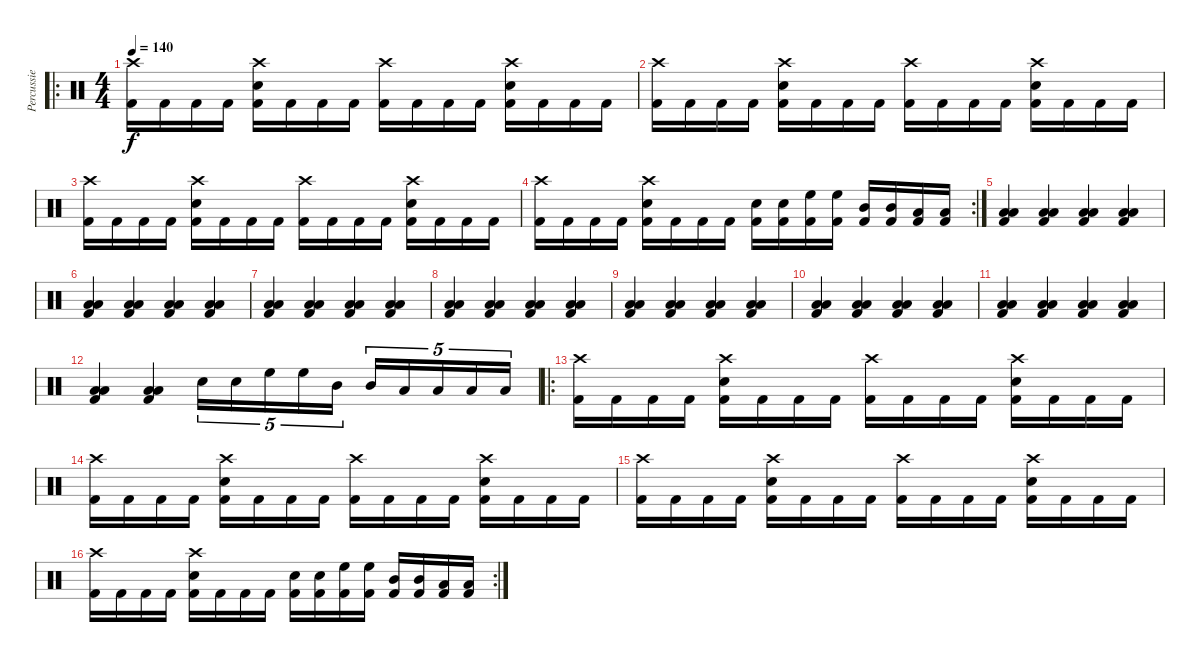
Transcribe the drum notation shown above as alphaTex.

\track ("Percussie" "Percussie") {instrument percussion}
\staff {score}
\articulation defaults
\ro
\ts (4 4)
\tempo 140
\clef neutral
\ks c
("Crash high (hit)" "Kick (hit) 2").16{dy f} "Kick (hit) 2".16 "Kick (hit) 2".16 "Kick (hit) 2".16 ("Crash high (hit)" "Snare (hit) 2" "Kick (hit) 2").16 "Kick (hit) 2".16 "Kick (hit) 2".16 "Kick (hit) 2".16 ("Crash high (hit)" "Kick (hit) 2").16 "Kick (hit) 2".16 "Kick (hit) 2".16 "Kick (hit) 2".16 ("Crash high (hit)" "Snare (hit) 2" "Kick (hit) 2").16 "Kick (hit) 2".16 "Kick (hit) 2".16 "Kick (hit) 2".16 |
("Crash high (hit)" "Kick (hit) 2").16 "Kick (hit) 2".16 "Kick (hit) 2".16 "Kick (hit) 2".16 ("Crash high (hit)" "Snare (hit) 2" "Kick (hit) 2").16 "Kick (hit) 2".16 "Kick (hit) 2".16 "Kick (hit) 2".16 ("Crash high (hit)" "Kick (hit) 2").16 "Kick (hit) 2".16 "Kick (hit) 2".16 "Kick (hit) 2".16 ("Crash high (hit)" "Snare (hit) 2" "Kick (hit) 2").16 "Kick (hit) 2".16 "Kick (hit) 2".16 "Kick (hit) 2".16 |
("Crash high (hit)" "Kick (hit) 2").16 "Kick (hit) 2".16 "Kick (hit) 2".16 "Kick (hit) 2".16 ("Crash high (hit)" "Snare (hit) 2" "Kick (hit) 2").16 "Kick (hit) 2".16 "Kick (hit) 2".16 "Kick (hit) 2".16 ("Crash high (hit)" "Kick (hit) 2").16 "Kick (hit) 2".16 "Kick (hit) 2".16 "Kick (hit) 2".16 ("Crash high (hit)" "Snare (hit) 2" "Kick (hit) 2").16 "Kick (hit) 2".16 "Kick (hit) 2".16 "Kick (hit) 2".16 |
\rc 2
("Crash high (hit)" "Kick (hit) 2").16 "Kick (hit) 2".16 "Kick (hit) 2".16 "Kick (hit) 2".16 ("Crash high (hit)" "Snare (hit) 2" "Kick (hit) 2").16 "Kick (hit) 2".16 "Kick (hit) 2".16 "Kick (hit) 2".16 ("Snare (hit) 2" "Kick (hit) 2").16 ("Snare (hit) 2" "Kick (hit) 2").16 ("High Floor Tom (hit)" "Kick (hit) 2").16 ("High Floor Tom (hit)" "Kick (hit) 2").16 ("Mid Tom (hit)" "Kick (hit) 2").16 ("Mid Tom (hit)" "Kick (hit) 2").16 ("Low Tom (hit)" "Kick (hit) 2").16 ("Low Floor Tom (hit)" "Kick (hit) 2").16 |
("Low Floor Tom (hit)" "Low Tom (hit)" "Kick (hit) 2").4 ("Low Floor Tom (hit)" "Low Tom (hit)" "Kick (hit) 2").4 ("Low Floor Tom (hit)" "Low Tom (hit)" "Kick (hit) 2").4 ("Low Floor Tom (hit)" "Low Tom (hit)" "Kick (hit) 2").4 |
("Low Floor Tom (hit)" "Low Tom (hit)" "Kick (hit) 2").4 ("Low Floor Tom (hit)" "Low Tom (hit)" "Kick (hit) 2").4 ("Low Floor Tom (hit)" "Low Tom (hit)" "Kick (hit) 2").4 ("Low Floor Tom (hit)" "Low Tom (hit)" "Kick (hit) 2").4 |
("Low Floor Tom (hit)" "Low Tom (hit)" "Kick (hit) 2").4 ("Low Floor Tom (hit)" "Low Tom (hit)" "Kick (hit) 2").4 ("Low Floor Tom (hit)" "Low Tom (hit)" "Kick (hit) 2").4 ("Low Floor Tom (hit)" "Low Tom (hit)" "Kick (hit) 2").4 |
("Low Floor Tom (hit)" "Low Tom (hit)" "Kick (hit) 2").4 ("Low Floor Tom (hit)" "Low Tom (hit)" "Kick (hit) 2").4 ("Low Floor Tom (hit)" "Low Tom (hit)" "Kick (hit) 2").4 ("Low Floor Tom (hit)" "Low Tom (hit)" "Kick (hit) 2").4 |
("Low Floor Tom (hit)" "Low Tom (hit)" "Kick (hit) 2").4 ("Low Floor Tom (hit)" "Low Tom (hit)" "Kick (hit) 2").4 ("Low Floor Tom (hit)" "Low Tom (hit)" "Kick (hit) 2").4 ("Low Floor Tom (hit)" "Low Tom (hit)" "Kick (hit) 2").4 |
("Low Floor Tom (hit)" "Low Tom (hit)" "Kick (hit) 2").4 ("Low Floor Tom (hit)" "Low Tom (hit)" "Kick (hit) 2").4 ("Low Floor Tom (hit)" "Low Tom (hit)" "Kick (hit) 2").4 ("Low Floor Tom (hit)" "Low Tom (hit)" "Kick (hit) 2").4 |
("Low Floor Tom (hit)" "Low Tom (hit)" "Kick (hit) 2").4 ("Low Floor Tom (hit)" "Low Tom (hit)" "Kick (hit) 2").4 ("Low Floor Tom (hit)" "Low Tom (hit)" "Kick (hit) 2").4 ("Low Floor Tom (hit)" "Low Tom (hit)" "Kick (hit) 2").4 |
("Low Floor Tom (hit)" "Low Tom (hit)" "Kick (hit) 2").4 ("Low Floor Tom (hit)" "Low Tom (hit)" "Kick (hit) 2").4 "Snare (hit) 2".16{tu (5 4)} "Snare (hit) 2".16{tu (5 4)} "High Floor Tom (hit)".16{tu (5 4)} "High Floor Tom (hit)".16{tu (5 4)} "Mid Tom (hit)".16{tu (5 4)} "Mid Tom (hit)".16{tu (5 4)} "Low Tom (hit)".16{tu (5 4)} "Low Tom (hit)".16{tu (5 4)} "Low Floor Tom (hit)".16{tu (5 4)} "Low Floor Tom (hit)".16{tu (5 4)} |
\ro
("Crash high (hit)" "Kick (hit) 2").16 "Kick (hit) 2".16 "Kick (hit) 2".16 "Kick (hit) 2".16 ("Crash high (hit)" "Snare (hit) 2" "Kick (hit) 2").16 "Kick (hit) 2".16 "Kick (hit) 2".16 "Kick (hit) 2".16 ("Crash high (hit)" "Kick (hit) 2").16 "Kick (hit) 2".16 "Kick (hit) 2".16 "Kick (hit) 2".16 ("Crash high (hit)" "Snare (hit) 2" "Kick (hit) 2").16 "Kick (hit) 2".16 "Kick (hit) 2".16 "Kick (hit) 2".16 |
("Crash high (hit)" "Kick (hit) 2").16 "Kick (hit) 2".16 "Kick (hit) 2".16 "Kick (hit) 2".16 ("Crash high (hit)" "Snare (hit) 2" "Kick (hit) 2").16 "Kick (hit) 2".16 "Kick (hit) 2".16 "Kick (hit) 2".16 ("Crash high (hit)" "Kick (hit) 2").16 "Kick (hit) 2".16 "Kick (hit) 2".16 "Kick (hit) 2".16 ("Crash high (hit)" "Snare (hit) 2" "Kick (hit) 2").16 "Kick (hit) 2".16 "Kick (hit) 2".16 "Kick (hit) 2".16 |
("Crash high (hit)" "Kick (hit) 2").16 "Kick (hit) 2".16 "Kick (hit) 2".16 "Kick (hit) 2".16 ("Crash high (hit)" "Snare (hit) 2" "Kick (hit) 2").16 "Kick (hit) 2".16 "Kick (hit) 2".16 "Kick (hit) 2".16 ("Crash high (hit)" "Kick (hit) 2").16 "Kick (hit) 2".16 "Kick (hit) 2".16 "Kick (hit) 2".16 ("Crash high (hit)" "Snare (hit) 2" "Kick (hit) 2").16 "Kick (hit) 2".16 "Kick (hit) 2".16 "Kick (hit) 2".16 |
\rc 2
("Crash high (hit)" "Kick (hit) 2").16 "Kick (hit) 2".16 "Kick (hit) 2".16 "Kick (hit) 2".16 ("Crash high (hit)" "Snare (hit) 2" "Kick (hit) 2").16 "Kick (hit) 2".16 "Kick (hit) 2".16 "Kick (hit) 2".16 ("Snare (hit) 2" "Kick (hit) 2").16 ("Snare (hit) 2" "Kick (hit) 2").16 ("High Floor Tom (hit)" "Kick (hit) 2").16 ("High Floor Tom (hit)" "Kick (hit) 2").16 ("Mid Tom (hit)" "Kick (hit) 2").16 ("Mid Tom (hit)" "Kick (hit) 2").16 ("Low Tom (hit)" "Kick (hit) 2").16 ("Low Floor Tom (hit)" "Kick (hit) 2").16
